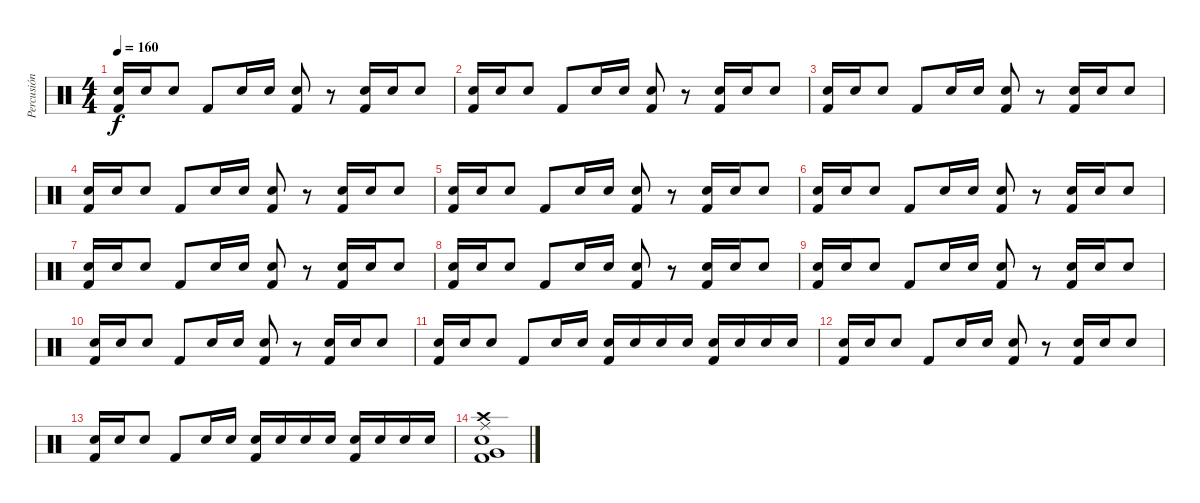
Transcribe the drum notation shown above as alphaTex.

\track ("Percusión" "Percusión") {instrument percussion}
\staff {score}
\articulation defaults
\ts (4 4)
\tempo 160
\clef neutral
\ks c
("Electric Snare (hit)" "Kick (hit) 2").16{dy f} "Electric Snare (hit)".16 "Electric Snare (hit)".8 "Kick (hit) 2".8 "Electric Snare (hit)".16 "Electric Snare (hit)".16 ("Electric Snare (hit)" "Kick (hit) 2").8 r.8 ("Electric Snare (hit)" "Kick (hit) 2").16 "Electric Snare (hit)".16 "Electric Snare (hit)".8 |
("Electric Snare (hit)" "Kick (hit) 2").16 "Electric Snare (hit)".16 "Electric Snare (hit)".8 "Kick (hit) 2".8 "Electric Snare (hit)".16 "Electric Snare (hit)".16 ("Electric Snare (hit)" "Kick (hit) 2").8 r.8 ("Electric Snare (hit)" "Kick (hit) 2").16 "Electric Snare (hit)".16 "Electric Snare (hit)".8 |
("Electric Snare (hit)" "Kick (hit) 2").16 "Electric Snare (hit)".16 "Electric Snare (hit)".8 "Kick (hit) 2".8 "Electric Snare (hit)".16 "Electric Snare (hit)".16 ("Electric Snare (hit)" "Kick (hit) 2").8 r.8 ("Electric Snare (hit)" "Kick (hit) 2").16 "Electric Snare (hit)".16 "Electric Snare (hit)".8 |
("Electric Snare (hit)" "Kick (hit) 2").16 "Electric Snare (hit)".16 "Electric Snare (hit)".8 "Kick (hit) 2".8 "Electric Snare (hit)".16 "Electric Snare (hit)".16 ("Electric Snare (hit)" "Kick (hit) 2").8 r.8 ("Electric Snare (hit)" "Kick (hit) 2").16 "Electric Snare (hit)".16 "Electric Snare (hit)".8 |
("Electric Snare (hit)" "Kick (hit) 2").16 "Electric Snare (hit)".16 "Electric Snare (hit)".8 "Kick (hit) 2".8 "Electric Snare (hit)".16 "Electric Snare (hit)".16 ("Electric Snare (hit)" "Kick (hit) 2").8 r.8 ("Electric Snare (hit)" "Kick (hit) 2").16 "Electric Snare (hit)".16 "Electric Snare (hit)".8 |
("Electric Snare (hit)" "Kick (hit) 2").16 "Electric Snare (hit)".16 "Electric Snare (hit)".8 "Kick (hit) 2".8 "Electric Snare (hit)".16 "Electric Snare (hit)".16 ("Electric Snare (hit)" "Kick (hit) 2").8 r.8 ("Electric Snare (hit)" "Kick (hit) 2").16 "Electric Snare (hit)".16 "Electric Snare (hit)".8 |
("Electric Snare (hit)" "Kick (hit) 2").16 "Electric Snare (hit)".16 "Electric Snare (hit)".8 "Kick (hit) 2".8 "Electric Snare (hit)".16 "Electric Snare (hit)".16 ("Electric Snare (hit)" "Kick (hit) 2").8 r.8 ("Electric Snare (hit)" "Kick (hit) 2").16 "Electric Snare (hit)".16 "Electric Snare (hit)".8 |
("Electric Snare (hit)" "Kick (hit) 2").16 "Electric Snare (hit)".16 "Electric Snare (hit)".8 "Kick (hit) 2".8 "Electric Snare (hit)".16 "Electric Snare (hit)".16 ("Electric Snare (hit)" "Kick (hit) 2").8 r.8 ("Electric Snare (hit)" "Kick (hit) 2").16 "Electric Snare (hit)".16 "Electric Snare (hit)".8 |
("Electric Snare (hit)" "Kick (hit) 2").16 "Electric Snare (hit)".16 "Electric Snare (hit)".8 "Kick (hit) 2".8 "Electric Snare (hit)".16 "Electric Snare (hit)".16 ("Electric Snare (hit)" "Kick (hit) 2").8 r.8 ("Electric Snare (hit)" "Kick (hit) 2").16 "Electric Snare (hit)".16 "Electric Snare (hit)".8 |
("Electric Snare (hit)" "Kick (hit) 2").16 "Electric Snare (hit)".16 "Electric Snare (hit)".8 "Kick (hit) 2".8 "Electric Snare (hit)".16 "Electric Snare (hit)".16 ("Electric Snare (hit)" "Kick (hit) 2").8 r.8 ("Electric Snare (hit)" "Kick (hit) 2").16 "Electric Snare (hit)".16 "Electric Snare (hit)".8 |
("Electric Snare (hit)" "Kick (hit) 2").16 "Electric Snare (hit)".16 "Electric Snare (hit)".8 "Kick (hit) 2".8 "Electric Snare (hit)".16 "Electric Snare (hit)".16 ("Electric Snare (hit)" "Kick (hit) 2").16 "Electric Snare (hit)".16 "Electric Snare (hit)".16 "Electric Snare (hit)".16 ("Electric Snare (hit)" "Kick (hit) 2").16 "Electric Snare (hit)".16 "Electric Snare (hit)".16 "Electric Snare (hit)".16 |
("Electric Snare (hit)" "Kick (hit) 2").16 "Electric Snare (hit)".16 "Electric Snare (hit)".8 "Kick (hit) 2".8 "Electric Snare (hit)".16 "Electric Snare (hit)".16 ("Electric Snare (hit)" "Kick (hit) 2").8 r.8 ("Electric Snare (hit)" "Kick (hit) 2").16 "Electric Snare (hit)".16 "Electric Snare (hit)".8 |
("Electric Snare (hit)" "Kick (hit) 2").16 "Electric Snare (hit)".16 "Electric Snare (hit)".8 "Kick (hit) 2".8 "Electric Snare (hit)".16 "Electric Snare (hit)".16 ("Electric Snare (hit)" "Kick (hit) 2").16 "Electric Snare (hit)".16 "Electric Snare (hit)".16 "Electric Snare (hit)".16 ("Electric Snare (hit)" "Kick (hit) 2").16 "Electric Snare (hit)".16 "Electric Snare (hit)".16 "Electric Snare (hit)".16 |
("Kick (hit) 2" "Crash high (hit)" "Ride (middle)" "Electric Snare (hit)" "Very Low Tom (hit)").1
